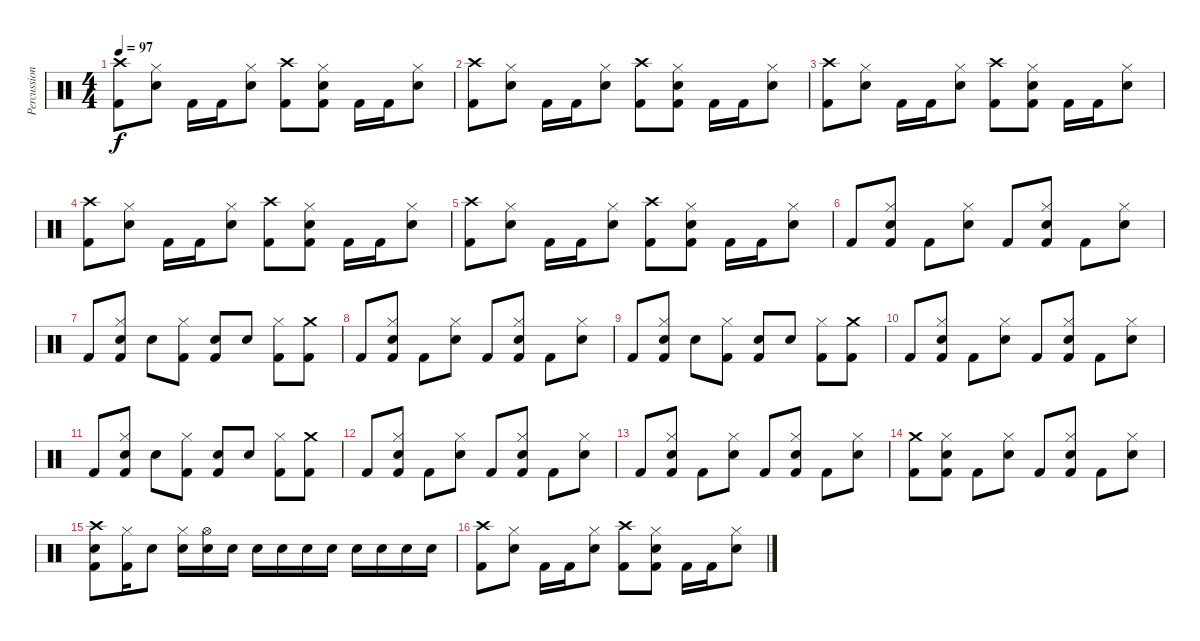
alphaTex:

\track ("Percussion" "Percussion") {instrument percussion}
\staff {score}
\articulation defaults
\ts (4 4)
\tempo 97
\clef neutral
\ks c
("Crash high (hit)" "Kick (hit) 2").8{dy f} ("Hi-Hat (closed)" "Snare (hit) 2").8 "Kick (hit) 2".16 "Kick (hit) 2".16 ("Hi-Hat (closed)" "Snare (hit) 2").8 ("Crash high (hit)" "Kick (hit) 2").8 ("Hi-Hat (closed)" "Snare (hit) 2" "Kick (hit) 2").8 "Kick (hit) 2".16 "Kick (hit) 2".16 ("Hi-Hat (closed)" "Snare (hit) 2").8 |
("Crash high (hit)" "Kick (hit) 2").8 ("Hi-Hat (closed)" "Snare (hit) 2").8 "Kick (hit) 2".16 "Kick (hit) 2".16 ("Hi-Hat (closed)" "Snare (hit) 2").8 ("Crash high (hit)" "Kick (hit) 2").8 ("Hi-Hat (closed)" "Snare (hit) 2" "Kick (hit) 2").8 "Kick (hit) 2".16 "Kick (hit) 2".16 ("Hi-Hat (closed)" "Snare (hit) 2").8 |
("Crash high (hit)" "Kick (hit) 2").8 ("Hi-Hat (closed)" "Snare (hit) 2").8 "Kick (hit) 2".16 "Kick (hit) 2".16 ("Hi-Hat (closed)" "Snare (hit) 2").8 ("Crash high (hit)" "Kick (hit) 2").8 ("Hi-Hat (closed)" "Snare (hit) 2" "Kick (hit) 2").8 "Kick (hit) 2".16 "Kick (hit) 2".16 ("Hi-Hat (closed)" "Snare (hit) 2").8 |
("Crash high (hit)" "Kick (hit) 2").8 ("Hi-Hat (closed)" "Snare (hit) 2").8 "Kick (hit) 2".16 "Kick (hit) 2".16 ("Hi-Hat (closed)" "Snare (hit) 2").8 ("Crash high (hit)" "Kick (hit) 2").8 ("Hi-Hat (closed)" "Snare (hit) 2" "Kick (hit) 2").8 "Kick (hit) 2".16 "Kick (hit) 2".16 ("Hi-Hat (closed)" "Snare (hit) 2").8 |
("Crash high (hit)" "Kick (hit) 2").8 ("Hi-Hat (closed)" "Snare (hit) 2").8 "Kick (hit) 2".16 "Kick (hit) 2".16 ("Hi-Hat (closed)" "Snare (hit) 2").8 ("Crash high (hit)" "Kick (hit) 2").8 ("Hi-Hat (closed)" "Snare (hit) 2" "Kick (hit) 2").8 "Kick (hit) 2".16 "Kick (hit) 2".16 ("Hi-Hat (closed)" "Snare (hit) 2").8 |
"Kick (hit) 2".8 ("Hi-Hat (closed)" "Snare (hit) 2" "Kick (hit) 2").8 "Kick (hit) 2".8 ("Hi-Hat (closed)" "Snare (hit) 2").8 "Kick (hit) 2".8 ("Hi-Hat (closed)" "Snare (hit) 2" "Kick (hit) 2").8 "Kick (hit) 2".8 ("Hi-Hat (closed)" "Snare (hit) 2").8 |
"Kick (hit) 2".8 ("Hi-Hat (closed)" "Snare (hit) 2" "Kick (hit) 2").8 "Snare (hit) 2".8 ("Hi-Hat (closed)" "Kick (hit) 2").8 ("Snare (hit) 2" "Kick (hit) 2").8 "Snare (hit) 2".8 ("Hi-Hat (closed)" "Kick (hit) 2").8 ("Crash medium (hit)" "Kick (hit) 2").8 |
"Kick (hit) 2".8 ("Hi-Hat (closed)" "Snare (hit) 2" "Kick (hit) 2").8 "Kick (hit) 2".8 ("Hi-Hat (closed)" "Snare (hit) 2").8 "Kick (hit) 2".8 ("Hi-Hat (closed)" "Snare (hit) 2" "Kick (hit) 2").8 "Kick (hit) 2".8 ("Hi-Hat (closed)" "Snare (hit) 2").8 |
"Kick (hit) 2".8 ("Hi-Hat (closed)" "Snare (hit) 2" "Kick (hit) 2").8 "Snare (hit) 2".8 ("Hi-Hat (closed)" "Kick (hit) 2").8 ("Snare (hit) 2" "Kick (hit) 2").8 "Snare (hit) 2".8 ("Hi-Hat (closed)" "Kick (hit) 2").8 ("Crash medium (hit)" "Kick (hit) 2").8 |
"Kick (hit) 2".8 ("Hi-Hat (closed)" "Snare (hit) 2" "Kick (hit) 2").8 "Kick (hit) 2".8 ("Hi-Hat (closed)" "Snare (hit) 2").8 "Kick (hit) 2".8 ("Hi-Hat (closed)" "Snare (hit) 2" "Kick (hit) 2").8 "Kick (hit) 2".8 ("Hi-Hat (closed)" "Snare (hit) 2").8 |
"Kick (hit) 2".8 ("Hi-Hat (closed)" "Snare (hit) 2" "Kick (hit) 2").8 "Snare (hit) 2".8 ("Hi-Hat (closed)" "Kick (hit) 2").8 ("Snare (hit) 2" "Kick (hit) 2").8 "Snare (hit) 2".8 ("Hi-Hat (closed)" "Kick (hit) 2").8 ("Crash medium (hit)" "Kick (hit) 2").8 |
"Kick (hit) 2".8 ("Hi-Hat (closed)" "Snare (hit) 2" "Kick (hit) 2").8 "Kick (hit) 2".8 ("Hi-Hat (closed)" "Snare (hit) 2").8 "Kick (hit) 2".8 ("Hi-Hat (closed)" "Snare (hit) 2" "Kick (hit) 2").8 "Kick (hit) 2".8 ("Hi-Hat (closed)" "Snare (hit) 2").8 |
"Kick (hit) 2".8 ("Hi-Hat (closed)" "Snare (hit) 2" "Kick (hit) 2").8 "Kick (hit) 2".8 ("Hi-Hat (closed)" "Snare (hit) 2").8 "Kick (hit) 2".8 ("Hi-Hat (closed)" "Snare (hit) 2" "Kick (hit) 2").8 "Kick (hit) 2".8 ("Hi-Hat (closed)" "Snare (hit) 2").8 |
("Crash medium (hit)" "Kick (hit) 2").8 ("Hi-Hat (closed)" "Snare (hit) 2" "Kick (hit) 2").8 "Kick (hit) 2".8 ("Hi-Hat (closed)" "Snare (hit) 2").8 "Kick (hit) 2".8 ("Hi-Hat (closed)" "Snare (hit) 2" "Kick (hit) 2").8 "Kick (hit) 2".8 ("Hi-Hat (closed)" "Snare (hit) 2").8 |
("Crash high (hit)" "Snare (hit) 2" "Kick (hit) 2").8 ("Hi-Hat (closed)" "Kick (hit) 2").16 "Snare (hit) 2".8 ("Hi-Hat (closed)" "Snare (hit) 2").16 ("Hi-Hat (open)" "Snare (hit) 2").16 "Snare (hit) 2".16 "Snare (hit) 2".16 "Snare (hit) 2".16 "Snare (hit) 2".16 "Snare (hit) 2".16 "Snare (hit) 2".16 "Snare (hit) 2".16 "Snare (hit) 2".16 "Snare (hit) 2".16 |
("Crash high (hit)" "Kick (hit) 2").8 ("Hi-Hat (closed)" "Snare (hit) 2").8 "Kick (hit) 2".16 "Kick (hit) 2".16 ("Hi-Hat (closed)" "Snare (hit) 2").8 ("Crash high (hit)" "Kick (hit) 2").8 ("Hi-Hat (closed)" "Snare (hit) 2" "Kick (hit) 2").8 "Kick (hit) 2".16 "Kick (hit) 2".16 ("Hi-Hat (closed)" "Snare (hit) 2").8
